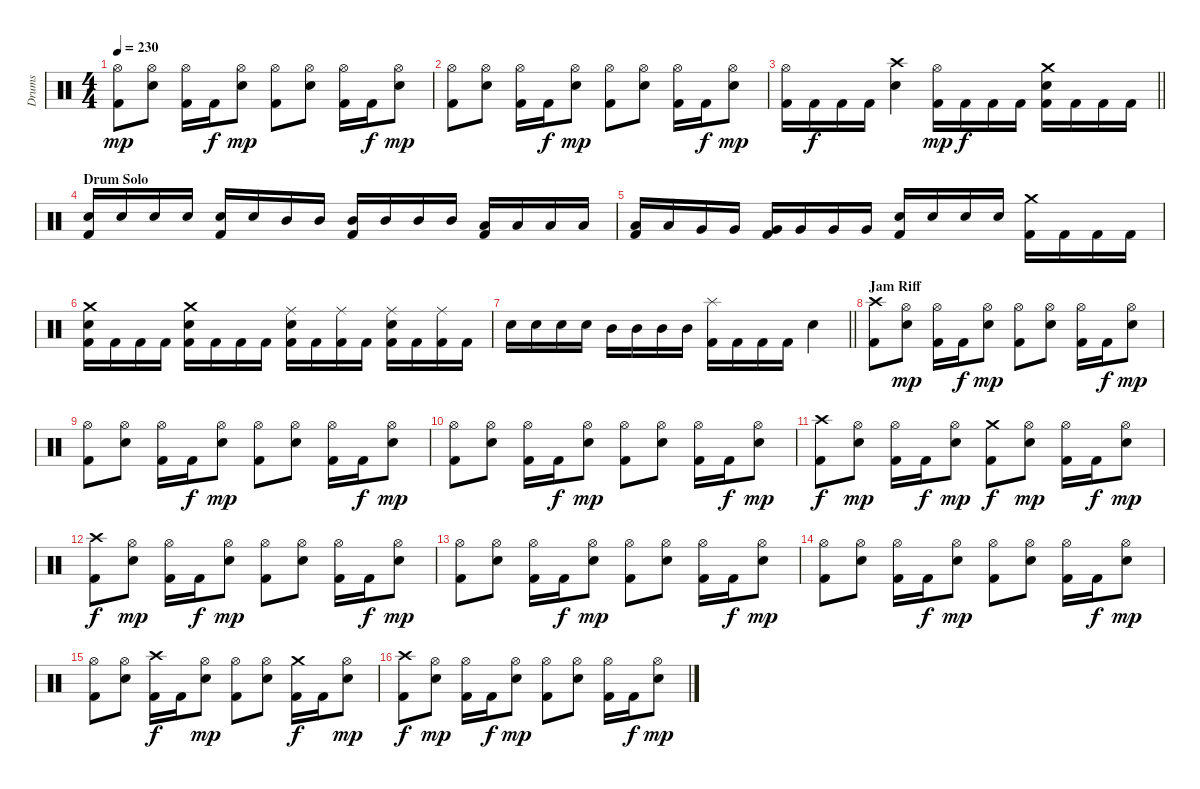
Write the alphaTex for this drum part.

\track ("Drums" "Drums") {instrument percussion}
\staff {score}
\articulation defaults
\ts (4 4)
\tempo 230
\clef neutral
\ks c
("Hi-Hat (open)" "Kick (hit) 2").8{dy mp} ("Hi-Hat (open)" "Snare (hit) 2").8 ("Hi-Hat (open)" "Kick (hit) 2").16 "Kick (hit) 2".16{dy f} ("Hi-Hat (open)" "Snare (hit) 2").8{dy mp} ("Hi-Hat (open)" "Kick (hit) 2").8 ("Hi-Hat (open)" "Snare (hit) 2").8 ("Hi-Hat (open)" "Kick (hit) 2").16 "Kick (hit) 2".16{dy f} ("Hi-Hat (open)" "Snare (hit) 2").8{dy mp} |
("Hi-Hat (open)" "Kick (hit) 2").8 ("Hi-Hat (open)" "Snare (hit) 2").8 ("Hi-Hat (open)" "Kick (hit) 2").16 "Kick (hit) 2".16{dy f} ("Hi-Hat (open)" "Snare (hit) 2").8{dy mp} ("Hi-Hat (open)" "Kick (hit) 2").8 ("Hi-Hat (open)" "Snare (hit) 2").8 ("Hi-Hat (open)" "Kick (hit) 2").16 "Kick (hit) 2".16{dy f} ("Hi-Hat (open)" "Snare (hit) 2").8{dy mp} |
\barLineRight lightlight
("Hi-Hat (open)" "Kick (hit) 2").16 "Kick (hit) 2".16{dy f} "Kick (hit) 2".16 "Kick (hit) 2".16 ("Crash high (hit)" "Snare (hit) 2").4 ("Hi-Hat (open)" "Kick (hit) 2").16{dy mp} "Kick (hit) 2".16{dy f} "Kick (hit) 2".16 "Kick (hit) 2".16 ("Crash medium (hit)" "Snare (hit) 2" "Kick (hit) 2").16 "Kick (hit) 2".16 "Kick (hit) 2".16 "Kick (hit) 2".16 |
\section ("" "Drum Solo")
("Snare (hit) 2" "Kick (hit) 2").16 "Snare (hit) 2".16 "Snare (hit) 2".16 "Snare (hit) 2".16 ("Snare (hit) 2" "Kick (hit) 2").16 "Snare (hit) 2".16 "Mid Tom (hit)".16 "Mid Tom (hit)".16 ("Mid Tom (hit)" "Kick (hit) 2").16 "Mid Tom (hit)".16 "Mid Tom (hit)".16 "Mid Tom (hit)".16 ("Low Tom (hit)" "Kick (hit) 2").16 "Low Tom (hit)".16 "Low Tom (hit)".16 "Low Tom (hit)".16 |
("Low Tom (hit)" "Kick (hit) 2").16 "Low Tom (hit)".16 "Very Low Tom (hit)".16 "Very Low Tom (hit)".16 ("Very Low Tom (hit)" "Kick (hit) 2").16 "Very Low Tom (hit)".16 "Very Low Tom (hit)".16 "Very Low Tom (hit)".16 ("Snare (hit) 2" "Kick (hit) 2").16 "Snare (hit) 2".16 "Snare (hit) 2".16 "Snare (hit) 2".16 ("Crash medium (hit)" "Kick (hit) 2").16 "Kick (hit) 2".16 "Kick (hit) 2".16 "Kick (hit) 2".16 |
("Crash medium (hit)" "Snare (hit) 2" "Kick (hit) 2").16 "Kick (hit) 2".16 "Kick (hit) 2".16 "Kick (hit) 2".16 ("Crash medium (hit)" "Snare (hit) 2" "Kick (hit) 2").16 "Kick (hit) 2".16 "Kick (hit) 2".16 "Kick (hit) 2".16 ("Ride (middle)" "Snare (hit) 2" "Kick (hit) 2").16 "Kick (hit) 2".16 ("Ride (middle)" "Kick (hit) 2").16 "Kick (hit) 2".16 ("Ride (middle)" "Snare (hit) 2" "Kick (hit) 2").16 "Kick (hit) 2".16 ("Ride (middle)" "Kick (hit) 2").16 "Kick (hit) 2".16 |
\barLineRight lightlight "Snare (hit) 2".16 "Snare (hit) 2".16 "Snare (hit) 2".16 "Snare (hit) 2".16 "Mid Tom (hit)".16 "Mid Tom (hit)".16 "Mid Tom (hit)".16 "Mid Tom (hit)".16
("Splash (hit)" "Kick (hit) 2").16 "Kick (hit) 2".16 "Kick (hit) 2".16 "Kick (hit) 2".16 "Snare (hit) 2".4 |
\section ("" "Jam Riff")
("Crash high (hit)" "Kick (hit) 2").8 ("Hi-Hat (open)" "Snare (hit) 2").8{dy mp} ("Hi-Hat (open)" "Kick (hit) 2").16 "Kick (hit) 2".16{dy f} ("Hi-Hat (open)" "Snare (hit) 2").8{dy mp} ("Hi-Hat (open)" "Kick (hit) 2").8 ("Hi-Hat (open)" "Snare (hit) 2").8 ("Hi-Hat (open)" "Kick (hit) 2").16 "Kick (hit) 2".16{dy f} ("Hi-Hat (open)" "Snare (hit) 2").8{dy mp} |
("Hi-Hat (open)" "Kick (hit) 2").8 ("Hi-Hat (open)" "Snare (hit) 2").8 ("Hi-Hat (open)" "Kick (hit) 2").16 "Kick (hit) 2".16{dy f} ("Hi-Hat (open)" "Snare (hit) 2").8{dy mp} ("Hi-Hat (open)" "Kick (hit) 2").8 ("Hi-Hat (open)" "Snare (hit) 2").8 ("Hi-Hat (open)" "Kick (hit) 2").16 "Kick (hit) 2".16{dy f} ("Hi-Hat (open)" "Snare (hit) 2").8{dy mp} |
("Hi-Hat (open)" "Kick (hit) 2").8 ("Hi-Hat (open)" "Snare (hit) 2").8 ("Hi-Hat (open)" "Kick (hit) 2").16 "Kick (hit) 2".16{dy f} ("Hi-Hat (open)" "Snare (hit) 2").8{dy mp} ("Hi-Hat (open)" "Kick (hit) 2").8 ("Hi-Hat (open)" "Snare (hit) 2").8 ("Hi-Hat (open)" "Kick (hit) 2").16 "Kick (hit) 2".16{dy f} ("Hi-Hat (open)" "Snare (hit) 2").8{dy mp} |
("Crash high (hit)" "Kick (hit) 2").8{dy f} ("Hi-Hat (open)" "Snare (hit) 2").8{dy mp} ("Hi-Hat (open)" "Kick (hit) 2").16 "Kick (hit) 2".16{dy f} ("Hi-Hat (open)" "Snare (hit) 2").8{dy mp} ("Crash medium (hit)" "Kick (hit) 2").8{dy f} ("Hi-Hat (open)" "Snare (hit) 2").8{dy mp} ("Hi-Hat (open)" "Kick (hit) 2").16 "Kick (hit) 2".16{dy f} ("Hi-Hat (open)" "Snare (hit) 2").8{dy mp} |
("Crash high (hit)" "Kick (hit) 2").8{dy f} ("Hi-Hat (open)" "Snare (hit) 2").8{dy mp} ("Hi-Hat (open)" "Kick (hit) 2").16 "Kick (hit) 2".16{dy f} ("Hi-Hat (open)" "Snare (hit) 2").8{dy mp} ("Hi-Hat (open)" "Kick (hit) 2").8 ("Hi-Hat (open)" "Snare (hit) 2").8 ("Hi-Hat (open)" "Kick (hit) 2").16 "Kick (hit) 2".16{dy f} ("Hi-Hat (open)" "Snare (hit) 2").8{dy mp} |
("Hi-Hat (open)" "Kick (hit) 2").8 ("Hi-Hat (open)" "Snare (hit) 2").8 ("Hi-Hat (open)" "Kick (hit) 2").16 "Kick (hit) 2".16{dy f} ("Hi-Hat (open)" "Snare (hit) 2").8{dy mp} ("Hi-Hat (open)" "Kick (hit) 2").8 ("Hi-Hat (open)" "Snare (hit) 2").8 ("Hi-Hat (open)" "Kick (hit) 2").16 "Kick (hit) 2".16{dy f} ("Hi-Hat (open)" "Snare (hit) 2").8{dy mp} |
("Hi-Hat (open)" "Kick (hit) 2").8 ("Hi-Hat (open)" "Snare (hit) 2").8 ("Hi-Hat (open)" "Kick (hit) 2").16 "Kick (hit) 2".16{dy f} ("Hi-Hat (open)" "Snare (hit) 2").8{dy mp} ("Hi-Hat (open)" "Kick (hit) 2").8 ("Hi-Hat (open)" "Snare (hit) 2").8 ("Hi-Hat (open)" "Kick (hit) 2").16 "Kick (hit) 2".16{dy f} ("Hi-Hat (open)" "Snare (hit) 2").8{dy mp} |
("Hi-Hat (open)" "Kick (hit) 2").8 ("Hi-Hat (open)" "Snare (hit) 2").8 ("Crash high (hit)" "Kick (hit) 2").16{dy f} "Kick (hit) 2".16 ("Hi-Hat (open)" "Snare (hit) 2").8{dy mp} ("Hi-Hat (open)" "Kick (hit) 2").8 ("Hi-Hat (open)" "Snare (hit) 2").8 ("Crash medium (hit)" "Kick (hit) 2").16{dy f} "Kick (hit) 2".16 ("Hi-Hat (open)" "Snare (hit) 2").8{dy mp} |
("Crash high (hit)" "Kick (hit) 2").8{dy f} ("Hi-Hat (open)" "Snare (hit) 2").8{dy mp} ("Hi-Hat (open)" "Kick (hit) 2").16 "Kick (hit) 2".16{dy f} ("Hi-Hat (open)" "Snare (hit) 2").8{dy mp} ("Hi-Hat (open)" "Kick (hit) 2").8 ("Hi-Hat (open)" "Snare (hit) 2").8 ("Hi-Hat (open)" "Kick (hit) 2").16 "Kick (hit) 2".16{dy f} ("Hi-Hat (open)" "Snare (hit) 2").8{dy mp}
